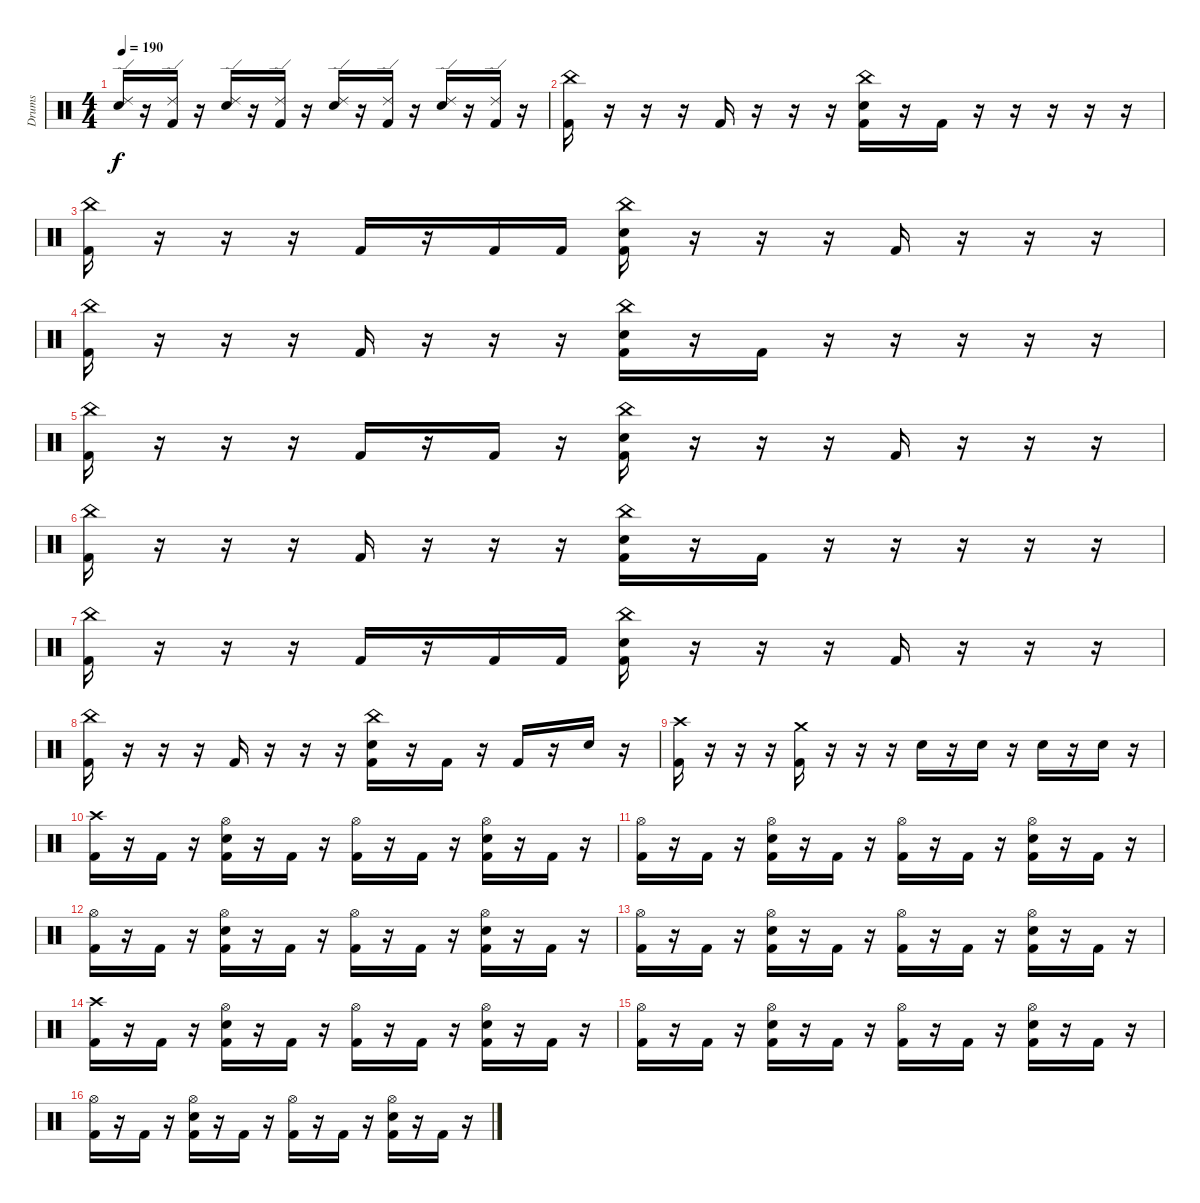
\track ("Drums" "Drums") {instrument percussion}
\staff {score}
\articulation defaults
\ts (4 4)
\tempo 190
\clef neutral
\ks c
("Ride (edge) 2" "Electric Snare (hit)").16{dy f} r.16 ("Ride (edge) 2" "Kick (hit) 2").16 r.16 ("Ride (edge) 2" "Electric Snare (hit)").16 r.16 ("Ride (edge) 2" "Kick (hit) 2").16 r.16 ("Ride (edge) 2" "Electric Snare (hit)").16 r.16 ("Ride (edge) 2" "Kick (hit) 2").16 r.16 ("Ride (edge) 2" "Electric Snare (hit)").16 r.16 ("Ride (edge) 2" "Kick (hit) 2").16 r.16 |
("China (hit)" "Kick (hit) 2").16 r.16 r.16 r.16 "Kick (hit) 2".16 r.16 r.16 r.16 ("China (hit)" "Electric Snare (hit)" "Kick (hit) 2").16 r.16 "Kick (hit) 2".16 r.16 r.16 r.16 r.16 r.16 |
("China (hit)" "Kick (hit) 2").16 r.16 r.16 r.16 "Kick (hit) 2".16 r.16 "Kick (hit) 2".16 "Kick (hit) 2".16 ("China (hit)" "Electric Snare (hit)" "Kick (hit) 2").16 r.16 r.16 r.16 "Kick (hit) 2".16 r.16 r.16 r.16 |
("China (hit)" "Kick (hit) 2").16 r.16 r.16 r.16 "Kick (hit) 2".16 r.16 r.16 r.16 ("China (hit)" "Electric Snare (hit)" "Kick (hit) 2").16 r.16 "Kick (hit) 2".16 r.16 r.16 r.16 r.16 r.16 |
("China (hit)" "Kick (hit) 2").16 r.16 r.16 r.16 "Kick (hit) 2".16 r.16 "Kick (hit) 2".16 r.16 ("China (hit)" "Electric Snare (hit)" "Kick (hit) 2").16 r.16 r.16 r.16 "Kick (hit) 2".16 r.16 r.16 r.16 |
("China (hit)" "Kick (hit) 2").16 r.16 r.16 r.16 "Kick (hit) 2".16 r.16 r.16 r.16 ("China (hit)" "Electric Snare (hit)" "Kick (hit) 2").16 r.16 "Kick (hit) 2".16 r.16 r.16 r.16 r.16 r.16 |
("China (hit)" "Kick (hit) 2").16 r.16 r.16 r.16 "Kick (hit) 2".16 r.16 "Kick (hit) 2".16 "Kick (hit) 2".16 ("China (hit)" "Electric Snare (hit)" "Kick (hit) 2").16 r.16 r.16 r.16 "Kick (hit) 2".16 r.16 r.16 r.16 |
("China (hit)" "Kick (hit) 2").16 r.16 r.16 r.16 "Kick (hit) 2".16 r.16 r.16 r.16 ("China (hit)" "Electric Snare (hit)" "Kick (hit) 2").16 r.16 "Kick (hit) 2".16 r.16 "Kick (hit) 2".16 r.16 "Electric Snare (hit)".16 r.16 |
("Crash high (hit)" "Kick (hit) 2").16 r.16 r.16 r.16 ("Crash medium (hit)" "Kick (hit) 2").16 r.16 r.16 r.16 "Electric Snare (hit)".16 r.16 "Electric Snare (hit)".16 r.16 "Electric Snare (hit)".16 r.16 "Electric Snare (hit)".16 r.16 |
("Crash high (hit)" "Kick (hit) 2").16 r.16 "Kick (hit) 2".16 r.16 ("Hi-Hat (open)" "Electric Snare (hit)" "Kick (hit) 2").16 r.16 "Kick (hit) 2".16 r.16 ("Hi-Hat (open)" "Kick (hit) 2").16 r.16 "Kick (hit) 2".16 r.16 ("Hi-Hat (open)" "Electric Snare (hit)" "Kick (hit) 2").16 r.16 "Kick (hit) 2".16 r.16 |
("Hi-Hat (open)" "Kick (hit) 2").16 r.16 "Kick (hit) 2".16 r.16 ("Hi-Hat (open)" "Electric Snare (hit)" "Kick (hit) 2").16 r.16 "Kick (hit) 2".16 r.16 ("Hi-Hat (open)" "Kick (hit) 2").16 r.16 "Kick (hit) 2".16 r.16 ("Hi-Hat (open)" "Electric Snare (hit)" "Kick (hit) 2").16 r.16 "Kick (hit) 2".16 r.16 |
("Hi-Hat (open)" "Kick (hit) 2").16 r.16 "Kick (hit) 2".16 r.16 ("Hi-Hat (open)" "Electric Snare (hit)" "Kick (hit) 2").16 r.16 "Kick (hit) 2".16 r.16 ("Hi-Hat (open)" "Kick (hit) 2").16 r.16 "Kick (hit) 2".16 r.16 ("Hi-Hat (open)" "Electric Snare (hit)" "Kick (hit) 2").16 r.16 "Kick (hit) 2".16 r.16 |
("Hi-Hat (open)" "Kick (hit) 2").16 r.16 "Kick (hit) 2".16 r.16 ("Hi-Hat (open)" "Electric Snare (hit)" "Kick (hit) 2").16 r.16 "Kick (hit) 2".16 r.16 ("Hi-Hat (open)" "Kick (hit) 2").16 r.16 "Kick (hit) 2".16 r.16 ("Hi-Hat (open)" "Electric Snare (hit)" "Kick (hit) 2").16 r.16 "Kick (hit) 2".16 r.16 |
("Crash high (hit)" "Kick (hit) 2").16 r.16 "Kick (hit) 2".16 r.16 ("Hi-Hat (open)" "Electric Snare (hit)" "Kick (hit) 2").16 r.16 "Kick (hit) 2".16 r.16 ("Hi-Hat (open)" "Kick (hit) 2").16 r.16 "Kick (hit) 2".16 r.16 ("Hi-Hat (open)" "Electric Snare (hit)" "Kick (hit) 2").16 r.16 "Kick (hit) 2".16 r.16 |
("Hi-Hat (open)" "Kick (hit) 2").16 r.16 "Kick (hit) 2".16 r.16 ("Hi-Hat (open)" "Electric Snare (hit)" "Kick (hit) 2").16 r.16 "Kick (hit) 2".16 r.16 ("Hi-Hat (open)" "Kick (hit) 2").16 r.16 "Kick (hit) 2".16 r.16 ("Hi-Hat (open)" "Electric Snare (hit)" "Kick (hit) 2").16 r.16 "Kick (hit) 2".16 r.16 |
("Hi-Hat (open)" "Kick (hit) 2").16 r.16 "Kick (hit) 2".16 r.16 ("Hi-Hat (open)" "Electric Snare (hit)" "Kick (hit) 2").16 r.16 "Kick (hit) 2".16 r.16 ("Hi-Hat (open)" "Kick (hit) 2").16 r.16 "Kick (hit) 2".16 r.16 ("Hi-Hat (open)" "Electric Snare (hit)" "Kick (hit) 2").16 r.16 "Kick (hit) 2".16 r.16
